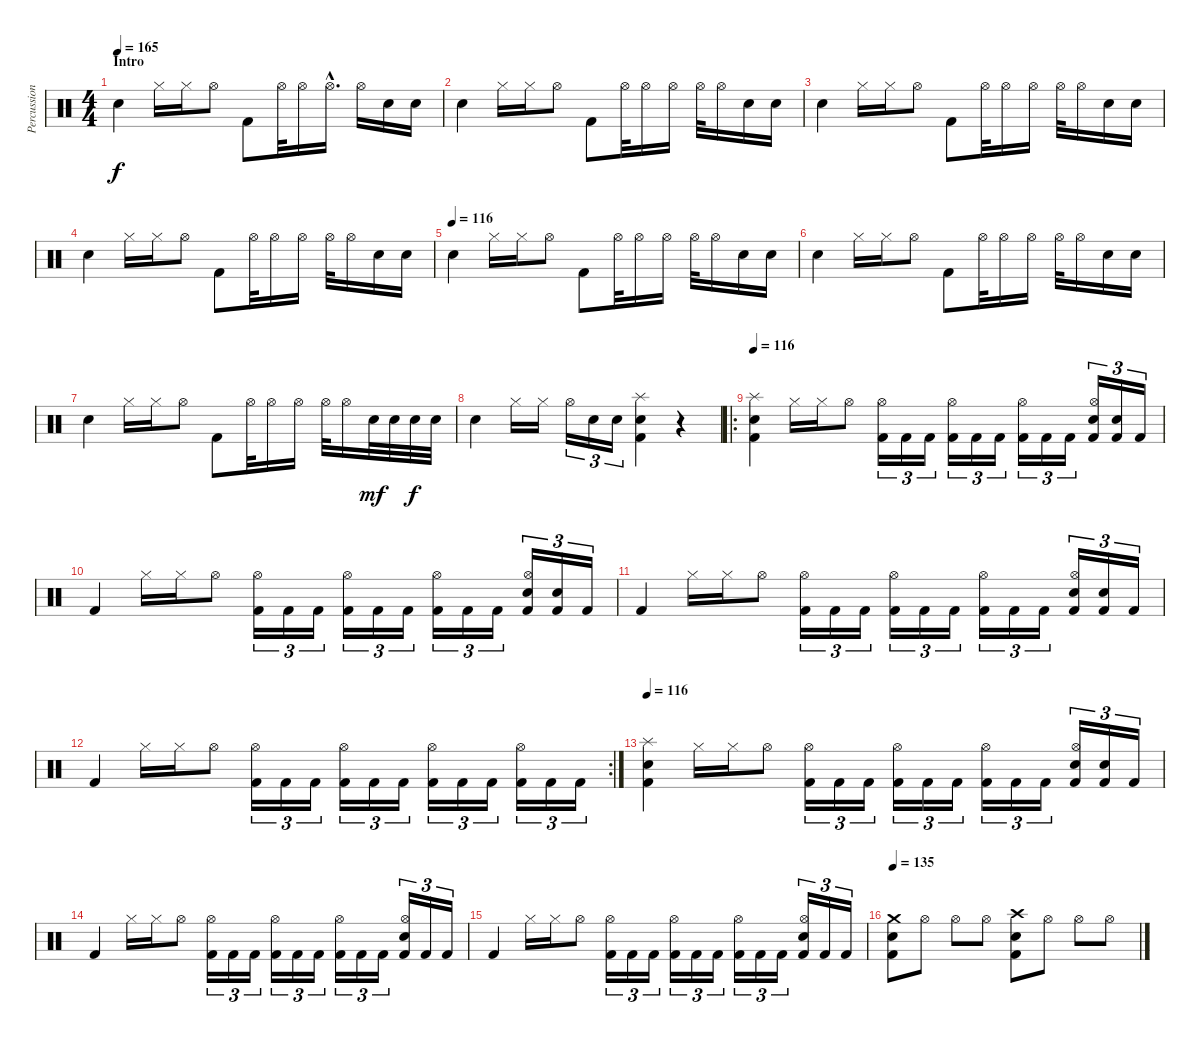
\track ("Percussions" "Percussion") {instrument percussion}
\staff {score}
\articulation defaults
\ts (4 4)
\section ("" "Intro")
\tempo 165
\tempo 116
\tempo 165
\clef neutral
\ks c "Electric Snare (hit)".4{dy f} "Hi-Hat (closed)".16 "Hi-Hat (closed)".16 "Hi-Hat (open)".8 "Kick (hit) 2".8 "Hi-Hat (open)".32 "Hi-Hat (open)".16 "Hi-Hat (open)"{hac}.16{d} "Hi-Hat (open)".16 "Electric Snare (hit)".16 "Electric Snare (hit)".16
|
"Electric Snare (hit)".4 "Hi-Hat (closed)".16 "Hi-Hat (closed)".16 "Hi-Hat (open)".8 "Kick (hit) 2".8 "Hi-Hat (open)".32 "Hi-Hat (open)".16 "Hi-Hat (open)".16 "Hi-Hat (open)".32 "Hi-Hat (open)".16 "Electric Snare (hit)".16 "Electric Snare (hit)".16 |
"Electric Snare (hit)".4 "Hi-Hat (closed)".16 "Hi-Hat (closed)".16 "Hi-Hat (open)".8 "Kick (hit) 2".8 "Hi-Hat (open)".32 "Hi-Hat (open)".16 "Hi-Hat (open)".16 "Hi-Hat (open)".32 "Hi-Hat (open)".16 "Electric Snare (hit)".16 "Electric Snare (hit)".16 |
"Electric Snare (hit)".4 "Hi-Hat (closed)".16 "Hi-Hat (closed)".16 "Hi-Hat (open)".8 "Kick (hit) 2".8 "Hi-Hat (open)".32 "Hi-Hat (open)".16 "Hi-Hat (open)".16 "Hi-Hat (open)".32 "Hi-Hat (open)".16 "Electric Snare (hit)".16 "Electric Snare (hit)".16 |
\tempo (116)
"Electric Snare (hit)".4 "Hi-Hat (closed)".16 "Hi-Hat (closed)".16 "Hi-Hat (open)".8 "Kick (hit) 2".8 "Hi-Hat (open)".32 "Hi-Hat (open)".16 "Hi-Hat (open)".16 "Hi-Hat (open)".32 "Hi-Hat (open)".16 "Electric Snare (hit)".16 "Electric Snare (hit)".16 |
"Electric Snare (hit)".4 "Hi-Hat (closed)".16 "Hi-Hat (closed)".16 "Hi-Hat (open)".8 "Kick (hit) 2".8 "Hi-Hat (open)".32 "Hi-Hat (open)".16 "Hi-Hat (open)".16 "Hi-Hat (open)".32 "Hi-Hat (open)".16 "Electric Snare (hit)".16 "Electric Snare (hit)".16 |
"Electric Snare (hit)".4 "Hi-Hat (closed)".16 "Hi-Hat (closed)".16 "Hi-Hat (open)".8 "Kick (hit) 2".8 "Hi-Hat (open)".32 "Hi-Hat (open)".16 "Hi-Hat (open)".16 "Hi-Hat (open)".32 "Hi-Hat (open)".16 "Electric Snare (hit)".32{dy mf} "Electric Snare (hit)".32 "Electric Snare (hit)".32{dy f} "Electric Snare (hit)".32 |
"Electric Snare (hit)".4 "Hi-Hat (closed)".16 "Hi-Hat (closed)".16 "Hi-Hat (open)".16{tu (3 2)} "Electric Snare (hit)".16{tu (3 2)} "Electric Snare (hit)".16{tu (3 2)} ("Splash (hit)" "Electric Snare (hit)" "Kick (hit) 2").4 r.4 |
\ro
\tempo 116
("Splash (hit)" "Electric Snare (hit)" "Kick (hit) 2").4 "Hi-Hat (closed)".16 "Hi-Hat (closed)".16 "Hi-Hat (open)".8 ("Hi-Hat (open)" "Kick (hit) 2").16{tu (3 2)} "Kick (hit) 2".16{tu (3 2)} "Kick (hit) 2".16{tu (3 2)} ("Hi-Hat (open)" "Kick (hit) 2").16{tu (3 2)} "Kick (hit) 2".16{tu (3 2)} "Kick (hit) 2".16{tu (3 2)} ("Hi-Hat (open)" "Kick (hit) 2").16{tu (3 2)} "Kick (hit) 2".16{tu (3 2)} "Kick (hit) 2".16{tu (3 2)} ("Hi-Hat (open)" "Electric Snare (hit)" "Kick (hit) 2").16{tu (3 2)} ("Electric Snare (hit)" "Kick (hit) 2").16{tu (3 2)} "Kick (hit) 2".16{tu (3 2)} |
"Kick (hit) 2".4 "Hi-Hat (closed)".16 "Hi-Hat (closed)".16 "Hi-Hat (open)".8 ("Hi-Hat (open)" "Kick (hit) 2").16{tu (3 2)} "Kick (hit) 2".16{tu (3 2)} "Kick (hit) 2".16{tu (3 2)} ("Hi-Hat (open)" "Kick (hit) 2").16{tu (3 2)} "Kick (hit) 2".16{tu (3 2)} "Kick (hit) 2".16{tu (3 2)} ("Hi-Hat (open)" "Kick (hit) 2").16{tu (3 2)} "Kick (hit) 2".16{tu (3 2)} "Kick (hit) 2".16{tu (3 2)} ("Hi-Hat (open)" "Electric Snare (hit)" "Kick (hit) 2").16{tu (3 2)} ("Electric Snare (hit)" "Kick (hit) 2").16{tu (3 2)} "Kick (hit) 2".16{tu (3 2)} |
"Kick (hit) 2".4 "Hi-Hat (closed)".16 "Hi-Hat (closed)".16 "Hi-Hat (open)".8 ("Hi-Hat (open)" "Kick (hit) 2").16{tu (3 2)} "Kick (hit) 2".16{tu (3 2)} "Kick (hit) 2".16{tu (3 2)} ("Hi-Hat (open)" "Kick (hit) 2").16{tu (3 2)} "Kick (hit) 2".16{tu (3 2)} "Kick (hit) 2".16{tu (3 2)} ("Hi-Hat (open)" "Kick (hit) 2").16{tu (3 2)} "Kick (hit) 2".16{tu (3 2)} "Kick (hit) 2".16{tu (3 2)} ("Hi-Hat (open)" "Electric Snare (hit)" "Kick (hit) 2").16{tu (3 2)} ("Electric Snare (hit)" "Kick (hit) 2").16{tu (3 2)} "Kick (hit) 2".16{tu (3 2)} |
\rc 2 "Kick (hit) 2".4 "Hi-Hat (closed)".16 "Hi-Hat (closed)".16 "Hi-Hat (open)".8
("Hi-Hat (open)" "Kick (hit) 2").16{tu (3 2)} "Kick (hit) 2".16{tu (3 2)} "Kick (hit) 2".16{tu (3 2)} ("Hi-Hat (open)" "Kick (hit) 2").16{tu (3 2)} "Kick (hit) 2".16{tu (3 2)} "Kick (hit) 2".16{tu (3 2)} ("Hi-Hat (open)" "Kick (hit) 2").16{tu (3 2)} "Kick (hit) 2".16{tu (3 2)} "Kick (hit) 2".16{tu (3 2)} ("Hi-Hat (open)" "Kick (hit) 2").16{tu (3 2)} "Kick (hit) 2".16{tu (3 2)} "Kick (hit) 2".16{tu (3 2)} |
\tempo 116
("Splash (hit)" "Electric Snare (hit)" "Kick (hit) 2").4 "Hi-Hat (closed)".16 "Hi-Hat (closed)".16 "Hi-Hat (open)".8 ("Hi-Hat (open)" "Kick (hit) 2").16{tu (3 2)} "Kick (hit) 2".16{tu (3 2)} "Kick (hit) 2".16{tu (3 2)} ("Hi-Hat (open)" "Kick (hit) 2").16{tu (3 2)} "Kick (hit) 2".16{tu (3 2)} "Kick (hit) 2".16{tu (3 2)} ("Hi-Hat (open)" "Kick (hit) 2").16{tu (3 2)} "Kick (hit) 2".16{tu (3 2)} "Kick (hit) 2".16{tu (3 2)} ("Hi-Hat (open)" "Electric Snare (hit)" "Kick (hit) 2").16{tu (3 2)} ("Electric Snare (hit)" "Kick (hit) 2").16{tu (3 2)} "Kick (hit) 2".16{tu (3 2)} |
"Kick (hit) 2".4 "Hi-Hat (closed)".16 "Hi-Hat (closed)".16 "Hi-Hat (open)".8 ("Hi-Hat (open)" "Kick (hit) 2").16{tu (3 2)} "Kick (hit) 2".16{tu (3 2)} "Kick (hit) 2".16{tu (3 2)} ("Hi-Hat (open)" "Kick (hit) 2").16{tu (3 2)} "Kick (hit) 2".16{tu (3 2)} "Kick (hit) 2".16{tu (3 2)} ("Hi-Hat (open)" "Kick (hit) 2").16{tu (3 2)} "Kick (hit) 2".16{tu (3 2)} "Kick (hit) 2".16{tu (3 2)} ("Hi-Hat (open)" "Electric Snare (hit)" "Kick (hit) 2").16{tu (3 2)} "Kick (hit) 2".16{tu (3 2)} "Kick (hit) 2".16{tu (3 2)} |
"Kick (hit) 2".4 "Hi-Hat (closed)".16 "Hi-Hat (closed)".16 "Hi-Hat (open)".8 ("Hi-Hat (open)" "Kick (hit) 2").16{tu (3 2)} "Kick (hit) 2".16{tu (3 2)} "Kick (hit) 2".16{tu (3 2)} ("Hi-Hat (open)" "Kick (hit) 2").16{tu (3 2)} "Kick (hit) 2".16{tu (3 2)} "Kick (hit) 2".16{tu (3 2)} ("Hi-Hat (open)" "Kick (hit) 2").16{tu (3 2)} "Kick (hit) 2".16{tu (3 2)} "Kick (hit) 2".16{tu (3 2)} ("Hi-Hat (open)" "Electric Snare (hit)" "Kick (hit) 2").16{tu (3 2)} "Kick (hit) 2".16{tu (3 2)} "Kick (hit) 2".16{tu (3 2)} |
\tempo 135
("Crash medium (hit)" "Electric Snare (hit)" "Kick (hit) 2").8 "Hi-Hat (open)".8 "Hi-Hat (open)".8 "Hi-Hat (open)".8 ("Crash high (hit)" "Electric Snare (hit)" "Kick (hit) 2").8 "Hi-Hat (open)".8 "Hi-Hat (open)".8 "Hi-Hat (open)".8
